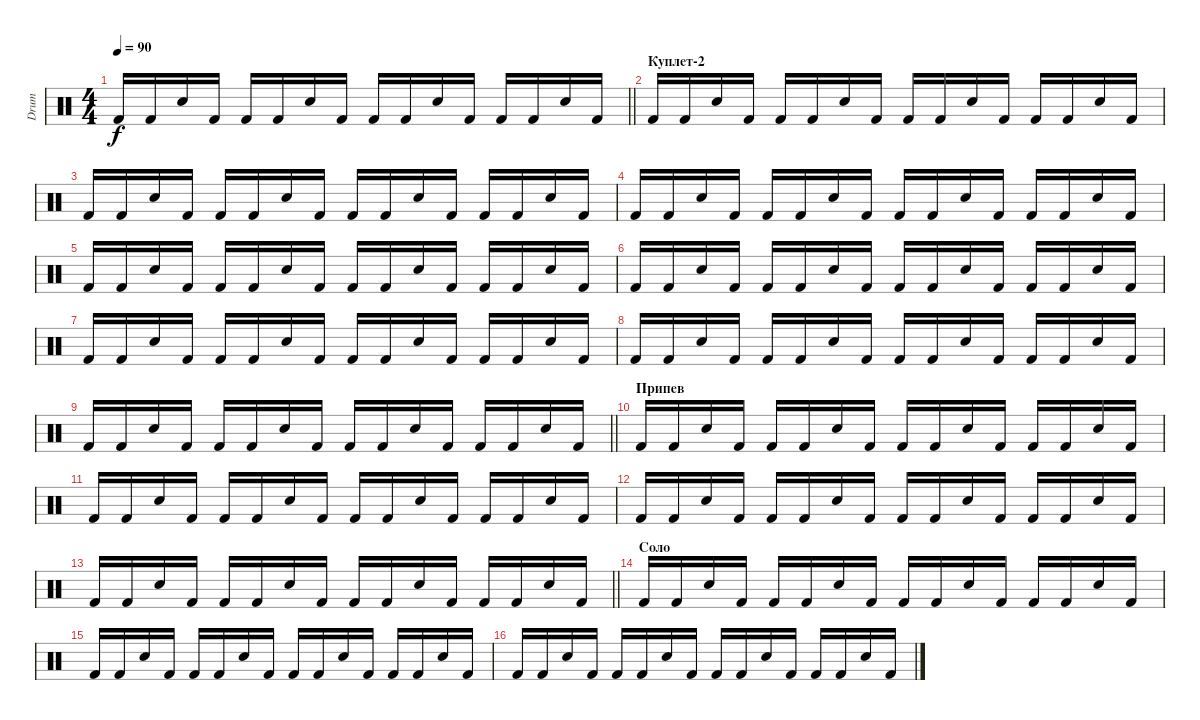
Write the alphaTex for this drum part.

\track ("Drum" "Drum") {instrument percussion}
\staff {score}
\articulation defaults
\ts (4 4)
\tempo 90
\clef neutral
\barLineRight lightlight
\ks c "Kick (hit) 2".16{dy f} "Kick (hit) 2".16 "Snare (hit) 2".16 "Kick (hit) 2".16 "Kick (hit) 2".16 "Kick (hit) 2".16 "Snare (hit) 2".16 "Kick (hit) 2".16 "Kick (hit) 2".16 "Kick (hit) 2".16 "Snare (hit) 2".16 "Kick (hit) 2".16 "Kick (hit) 2".16 "Kick (hit) 2".16 "Snare (hit) 2".16 "Kick (hit) 2".16
|
\section ("" "Куплет-2")
"Kick (hit) 2".16 "Kick (hit) 2".16 "Snare (hit) 2".16 "Kick (hit) 2".16 "Kick (hit) 2".16 "Kick (hit) 2".16 "Snare (hit) 2".16 "Kick (hit) 2".16 "Kick (hit) 2".16 "Kick (hit) 2".16 "Snare (hit) 2".16 "Kick (hit) 2".16 "Kick (hit) 2".16 "Kick (hit) 2".16 "Snare (hit) 2".16 "Kick (hit) 2".16 |
"Kick (hit) 2".16 "Kick (hit) 2".16 "Snare (hit) 2".16 "Kick (hit) 2".16 "Kick (hit) 2".16 "Kick (hit) 2".16 "Snare (hit) 2".16 "Kick (hit) 2".16 "Kick (hit) 2".16 "Kick (hit) 2".16 "Snare (hit) 2".16 "Kick (hit) 2".16 "Kick (hit) 2".16 "Kick (hit) 2".16 "Snare (hit) 2".16 "Kick (hit) 2".16 |
"Kick (hit) 2".16 "Kick (hit) 2".16 "Snare (hit) 2".16 "Kick (hit) 2".16 "Kick (hit) 2".16 "Kick (hit) 2".16 "Snare (hit) 2".16 "Kick (hit) 2".16 "Kick (hit) 2".16 "Kick (hit) 2".16 "Snare (hit) 2".16 "Kick (hit) 2".16 "Kick (hit) 2".16 "Kick (hit) 2".16 "Snare (hit) 2".16 "Kick (hit) 2".16 |
"Kick (hit) 2".16 "Kick (hit) 2".16 "Snare (hit) 2".16 "Kick (hit) 2".16 "Kick (hit) 2".16 "Kick (hit) 2".16 "Snare (hit) 2".16 "Kick (hit) 2".16 "Kick (hit) 2".16 "Kick (hit) 2".16 "Snare (hit) 2".16 "Kick (hit) 2".16 "Kick (hit) 2".16 "Kick (hit) 2".16 "Snare (hit) 2".16 "Kick (hit) 2".16 |
"Kick (hit) 2".16 "Kick (hit) 2".16 "Snare (hit) 2".16 "Kick (hit) 2".16 "Kick (hit) 2".16 "Kick (hit) 2".16 "Snare (hit) 2".16 "Kick (hit) 2".16 "Kick (hit) 2".16 "Kick (hit) 2".16 "Snare (hit) 2".16 "Kick (hit) 2".16 "Kick (hit) 2".16 "Kick (hit) 2".16 "Snare (hit) 2".16 "Kick (hit) 2".16 |
"Kick (hit) 2".16 "Kick (hit) 2".16 "Snare (hit) 2".16 "Kick (hit) 2".16 "Kick (hit) 2".16 "Kick (hit) 2".16 "Snare (hit) 2".16 "Kick (hit) 2".16 "Kick (hit) 2".16 "Kick (hit) 2".16 "Snare (hit) 2".16 "Kick (hit) 2".16 "Kick (hit) 2".16 "Kick (hit) 2".16 "Snare (hit) 2".16 "Kick (hit) 2".16 |
"Kick (hit) 2".16 "Kick (hit) 2".16 "Snare (hit) 2".16 "Kick (hit) 2".16 "Kick (hit) 2".16 "Kick (hit) 2".16 "Snare (hit) 2".16 "Kick (hit) 2".16 "Kick (hit) 2".16 "Kick (hit) 2".16 "Snare (hit) 2".16 "Kick (hit) 2".16 "Kick (hit) 2".16 "Kick (hit) 2".16 "Snare (hit) 2".16 "Kick (hit) 2".16 |
\barLineRight lightlight "Kick (hit) 2".16 "Kick (hit) 2".16 "Snare (hit) 2".16 "Kick (hit) 2".16 "Kick (hit) 2".16 "Kick (hit) 2".16 "Snare (hit) 2".16 "Kick (hit) 2".16 "Kick (hit) 2".16 "Kick (hit) 2".16 "Snare (hit) 2".16 "Kick (hit) 2".16 "Kick (hit) 2".16 "Kick (hit) 2".16 "Snare (hit) 2".16 "Kick (hit) 2".16
|
\section ("" "Припев")
"Kick (hit) 2".16 "Kick (hit) 2".16 "Snare (hit) 2".16 "Kick (hit) 2".16 "Kick (hit) 2".16 "Kick (hit) 2".16 "Snare (hit) 2".16 "Kick (hit) 2".16 "Kick (hit) 2".16 "Kick (hit) 2".16 "Snare (hit) 2".16 "Kick (hit) 2".16 "Kick (hit) 2".16 "Kick (hit) 2".16 "Snare (hit) 2".16 "Kick (hit) 2".16 |
"Kick (hit) 2".16 "Kick (hit) 2".16 "Snare (hit) 2".16 "Kick (hit) 2".16 "Kick (hit) 2".16 "Kick (hit) 2".16 "Snare (hit) 2".16 "Kick (hit) 2".16 "Kick (hit) 2".16 "Kick (hit) 2".16 "Snare (hit) 2".16 "Kick (hit) 2".16 "Kick (hit) 2".16 "Kick (hit) 2".16 "Snare (hit) 2".16 "Kick (hit) 2".16 |
"Kick (hit) 2".16 "Kick (hit) 2".16 "Snare (hit) 2".16 "Kick (hit) 2".16 "Kick (hit) 2".16 "Kick (hit) 2".16 "Snare (hit) 2".16 "Kick (hit) 2".16 "Kick (hit) 2".16 "Kick (hit) 2".16 "Snare (hit) 2".16 "Kick (hit) 2".16 "Kick (hit) 2".16 "Kick (hit) 2".16 "Snare (hit) 2".16 "Kick (hit) 2".16 |
\barLineRight lightlight "Kick (hit) 2".16 "Kick (hit) 2".16 "Snare (hit) 2".16 "Kick (hit) 2".16 "Kick (hit) 2".16 "Kick (hit) 2".16 "Snare (hit) 2".16 "Kick (hit) 2".16 "Kick (hit) 2".16 "Kick (hit) 2".16 "Snare (hit) 2".16 "Kick (hit) 2".16 "Kick (hit) 2".16 "Kick (hit) 2".16 "Snare (hit) 2".16 "Kick (hit) 2".16
|
\section ("" "Соло")
"Kick (hit) 2".16 "Kick (hit) 2".16 "Snare (hit) 2".16 "Kick (hit) 2".16 "Kick (hit) 2".16 "Kick (hit) 2".16 "Snare (hit) 2".16 "Kick (hit) 2".16 "Kick (hit) 2".16 "Kick (hit) 2".16 "Snare (hit) 2".16 "Kick (hit) 2".16 "Kick (hit) 2".16 "Kick (hit) 2".16 "Snare (hit) 2".16 "Kick (hit) 2".16 |
"Kick (hit) 2".16 "Kick (hit) 2".16 "Snare (hit) 2".16 "Kick (hit) 2".16 "Kick (hit) 2".16 "Kick (hit) 2".16 "Snare (hit) 2".16 "Kick (hit) 2".16 "Kick (hit) 2".16 "Kick (hit) 2".16 "Snare (hit) 2".16 "Kick (hit) 2".16 "Kick (hit) 2".16 "Kick (hit) 2".16 "Snare (hit) 2".16 "Kick (hit) 2".16 |
"Kick (hit) 2".16 "Kick (hit) 2".16 "Snare (hit) 2".16 "Kick (hit) 2".16 "Kick (hit) 2".16 "Kick (hit) 2".16 "Snare (hit) 2".16 "Kick (hit) 2".16 "Kick (hit) 2".16 "Kick (hit) 2".16 "Snare (hit) 2".16 "Kick (hit) 2".16 "Kick (hit) 2".16 "Kick (hit) 2".16 "Snare (hit) 2".16 "Kick (hit) 2".16
